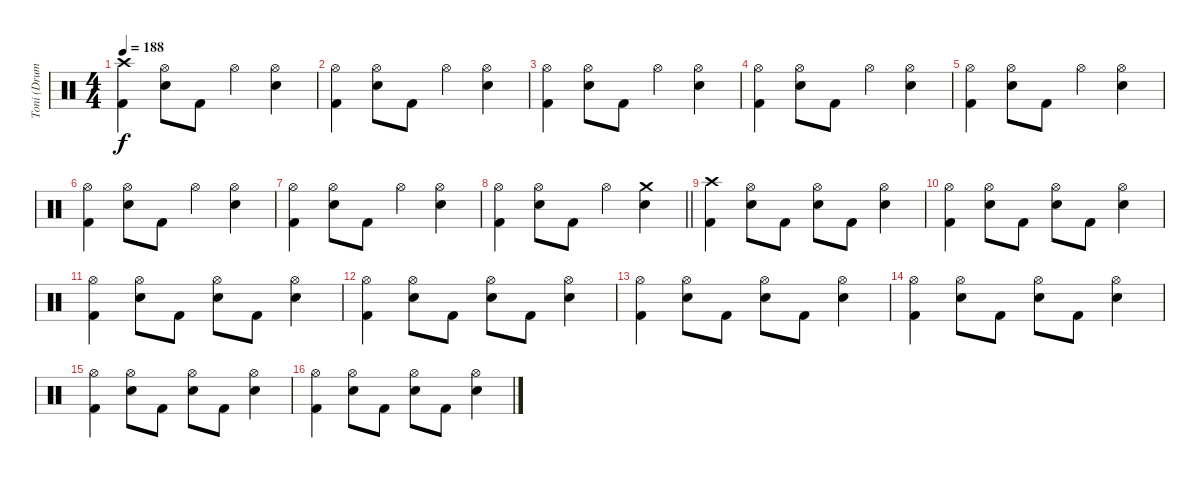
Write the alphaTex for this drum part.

\track ("Toni (Drums)" "Toni (Drum") {instrument percussion}
\staff {score}
\articulation defaults
\ts (4 4)
\tempo 188
\clef neutral
\ks c
("Crash high (hit)" "Kick (hit) 2").4{dy f} ("Hi-Hat (open)" "Electric Snare (hit)").8 "Kick (hit) 2".8 "Hi-Hat (open)".4 ("Hi-Hat (open)" "Electric Snare (hit)").4 |
("Hi-Hat (open)" "Kick (hit) 2").4 ("Hi-Hat (open)" "Electric Snare (hit)").8 "Kick (hit) 2".8 "Hi-Hat (open)".4 ("Hi-Hat (open)" "Electric Snare (hit)").4 |
("Hi-Hat (open)" "Kick (hit) 2").4 ("Hi-Hat (open)" "Electric Snare (hit)").8 "Kick (hit) 2".8 "Hi-Hat (open)".4 ("Hi-Hat (open)" "Electric Snare (hit)").4 |
("Hi-Hat (open)" "Kick (hit) 2").4 ("Hi-Hat (open)" "Electric Snare (hit)").8 "Kick (hit) 2".8 "Hi-Hat (open)".4 ("Hi-Hat (open)" "Electric Snare (hit)").4 |
("Hi-Hat (open)" "Kick (hit) 2").4 ("Hi-Hat (open)" "Electric Snare (hit)").8 "Kick (hit) 2".8 "Hi-Hat (open)".4 ("Hi-Hat (open)" "Electric Snare (hit)").4 |
("Hi-Hat (open)" "Kick (hit) 2").4 ("Hi-Hat (open)" "Electric Snare (hit)").8 "Kick (hit) 2".8 "Hi-Hat (open)".4 ("Hi-Hat (open)" "Electric Snare (hit)").4 |
("Hi-Hat (open)" "Kick (hit) 2").4 ("Hi-Hat (open)" "Electric Snare (hit)").8 "Kick (hit) 2".8 "Hi-Hat (open)".4 ("Hi-Hat (open)" "Electric Snare (hit)").4 |
\barLineRight lightlight
("Hi-Hat (open)" "Kick (hit) 2").4 ("Hi-Hat (open)" "Electric Snare (hit)").8 "Kick (hit) 2".8 "Hi-Hat (open)".4 ("Crash medium (hit)" "Electric Snare (hit)").4 |
("Crash high (hit)" "Kick (hit) 2").4 ("Hi-Hat (open)" "Electric Snare (hit)").8 "Kick (hit) 2".8 ("Hi-Hat (open)" "Electric Snare (hit)").8 "Kick (hit) 2".8 ("Hi-Hat (open)" "Electric Snare (hit)").4 |
("Hi-Hat (open)" "Kick (hit) 2").4 ("Hi-Hat (open)" "Electric Snare (hit)").8 "Kick (hit) 2".8 ("Hi-Hat (open)" "Electric Snare (hit)").8 "Kick (hit) 2".8 ("Hi-Hat (open)" "Electric Snare (hit)").4 |
("Hi-Hat (open)" "Kick (hit) 2").4 ("Hi-Hat (open)" "Electric Snare (hit)").8 "Kick (hit) 2".8 ("Hi-Hat (open)" "Electric Snare (hit)").8 "Kick (hit) 2".8 ("Hi-Hat (open)" "Electric Snare (hit)").4 |
("Hi-Hat (open)" "Kick (hit) 2").4 ("Hi-Hat (open)" "Electric Snare (hit)").8 "Kick (hit) 2".8 ("Hi-Hat (open)" "Electric Snare (hit)").8 "Kick (hit) 2".8 ("Hi-Hat (open)" "Electric Snare (hit)").4 |
("Hi-Hat (open)" "Kick (hit) 2").4 ("Hi-Hat (open)" "Electric Snare (hit)").8 "Kick (hit) 2".8 ("Hi-Hat (open)" "Electric Snare (hit)").8 "Kick (hit) 2".8 ("Hi-Hat (open)" "Electric Snare (hit)").4 |
("Hi-Hat (open)" "Kick (hit) 2").4 ("Hi-Hat (open)" "Electric Snare (hit)").8 "Kick (hit) 2".8 ("Hi-Hat (open)" "Electric Snare (hit)").8 "Kick (hit) 2".8 ("Hi-Hat (open)" "Electric Snare (hit)").4 |
("Hi-Hat (open)" "Kick (hit) 2").4 ("Hi-Hat (open)" "Electric Snare (hit)").8 "Kick (hit) 2".8 ("Hi-Hat (open)" "Electric Snare (hit)").8 "Kick (hit) 2".8 ("Hi-Hat (open)" "Electric Snare (hit)").4 |
("Hi-Hat (open)" "Kick (hit) 2").4 ("Hi-Hat (open)" "Electric Snare (hit)").8 "Kick (hit) 2".8 ("Hi-Hat (open)" "Electric Snare (hit)").8 "Kick (hit) 2".8 ("Hi-Hat (open)" "Electric Snare (hit)").4
